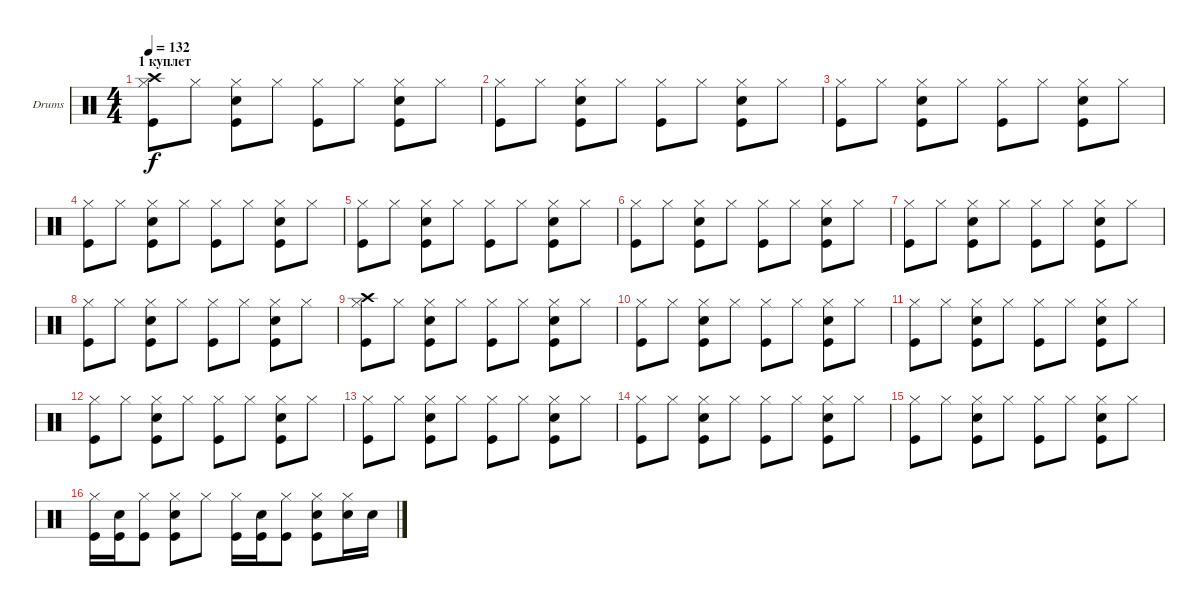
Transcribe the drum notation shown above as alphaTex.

\defaultSystemsLayout 4
\bracketExtendMode groupsimilarinstruments
\firstSystemTrackNameOrientation horizontal
\otherSystemsTrackNameOrientation horizontal
\track ("Drumkit" "Drums") {instrument percussion}
\staff {score}
\articulation defaults
\ts (4 4)
\section ("" "1 куплет")
\tempo 132
\clef neutral
\ks c
("Hi-Hat (closed)" "Kick (hit)" "Crash high (hit)").8{dy f} "Hi-Hat (closed)".8 ("Hi-Hat (closed)" "Kick (hit)" "Snare (hit) 2").8 "Hi-Hat (closed)".8 ("Hi-Hat (closed)" "Kick (hit)").8 "Hi-Hat (closed)".8 ("Hi-Hat (closed)" "Kick (hit)" "Snare (hit) 2").8 "Hi-Hat (closed)".8 |
("Hi-Hat (closed)" "Kick (hit)").8 "Hi-Hat (closed)".8 ("Hi-Hat (closed)" "Kick (hit)" "Snare (hit) 2").8 "Hi-Hat (closed)".8 ("Hi-Hat (closed)" "Kick (hit)").8 "Hi-Hat (closed)".8 ("Hi-Hat (closed)" "Kick (hit)" "Snare (hit) 2").8 "Hi-Hat (closed)".8 |
("Hi-Hat (closed)" "Kick (hit)").8 "Hi-Hat (closed)".8 ("Hi-Hat (closed)" "Kick (hit)" "Snare (hit) 2").8 "Hi-Hat (closed)".8 ("Hi-Hat (closed)" "Kick (hit)").8 "Hi-Hat (closed)".8 ("Hi-Hat (closed)" "Kick (hit)" "Snare (hit) 2").8 "Hi-Hat (closed)".8 |
("Hi-Hat (closed)" "Kick (hit)").8 "Hi-Hat (closed)".8 ("Hi-Hat (closed)" "Kick (hit)" "Snare (hit) 2").8 "Hi-Hat (closed)".8 ("Hi-Hat (closed)" "Kick (hit)").8 "Hi-Hat (closed)".8 ("Hi-Hat (closed)" "Kick (hit)" "Snare (hit) 2").8 "Hi-Hat (closed)".8 |
("Hi-Hat (closed)" "Kick (hit)").8 "Hi-Hat (closed)".8 ("Hi-Hat (closed)" "Kick (hit)" "Snare (hit) 2").8 "Hi-Hat (closed)".8 ("Hi-Hat (closed)" "Kick (hit)").8 "Hi-Hat (closed)".8 ("Hi-Hat (closed)" "Kick (hit)" "Snare (hit) 2").8 "Hi-Hat (closed)".8 |
("Hi-Hat (closed)" "Kick (hit)").8 "Hi-Hat (closed)".8 ("Hi-Hat (closed)" "Kick (hit)" "Snare (hit) 2").8 "Hi-Hat (closed)".8 ("Hi-Hat (closed)" "Kick (hit)").8 "Hi-Hat (closed)".8 ("Hi-Hat (closed)" "Kick (hit)" "Snare (hit) 2").8 "Hi-Hat (closed)".8 |
("Hi-Hat (closed)" "Kick (hit)").8 "Hi-Hat (closed)".8 ("Hi-Hat (closed)" "Kick (hit)" "Snare (hit) 2").8 "Hi-Hat (closed)".8 ("Hi-Hat (closed)" "Kick (hit)").8 "Hi-Hat (closed)".8 ("Hi-Hat (closed)" "Kick (hit)" "Snare (hit) 2").8 "Hi-Hat (closed)".8 |
("Hi-Hat (closed)" "Kick (hit)").8 "Hi-Hat (closed)".8 ("Hi-Hat (closed)" "Kick (hit)" "Snare (hit) 2").8 "Hi-Hat (closed)".8 ("Hi-Hat (closed)" "Kick (hit)").8 "Hi-Hat (closed)".8 ("Hi-Hat (closed)" "Kick (hit)" "Snare (hit) 2").8 "Hi-Hat (closed)".8 |
("Hi-Hat (closed)" "Kick (hit)" "Crash high (hit)").8 "Hi-Hat (closed)".8 ("Hi-Hat (closed)" "Kick (hit)" "Snare (hit) 2").8 "Hi-Hat (closed)".8 ("Hi-Hat (closed)" "Kick (hit)").8 "Hi-Hat (closed)".8 ("Hi-Hat (closed)" "Kick (hit)" "Snare (hit) 2").8 "Hi-Hat (closed)".8 |
("Hi-Hat (closed)" "Kick (hit)").8 "Hi-Hat (closed)".8 ("Hi-Hat (closed)" "Kick (hit)" "Snare (hit) 2").8 "Hi-Hat (closed)".8 ("Hi-Hat (closed)" "Kick (hit)").8 "Hi-Hat (closed)".8 ("Hi-Hat (closed)" "Kick (hit)" "Snare (hit) 2").8 "Hi-Hat (closed)".8 |
("Hi-Hat (closed)" "Kick (hit)").8 "Hi-Hat (closed)".8 ("Hi-Hat (closed)" "Kick (hit)" "Snare (hit) 2").8 "Hi-Hat (closed)".8 ("Hi-Hat (closed)" "Kick (hit)").8 "Hi-Hat (closed)".8 ("Hi-Hat (closed)" "Kick (hit)" "Snare (hit) 2").8 "Hi-Hat (closed)".8 |
("Hi-Hat (closed)" "Kick (hit)").8 "Hi-Hat (closed)".8 ("Hi-Hat (closed)" "Kick (hit)" "Snare (hit) 2").8 "Hi-Hat (closed)".8 ("Hi-Hat (closed)" "Kick (hit)").8 "Hi-Hat (closed)".8 ("Hi-Hat (closed)" "Kick (hit)" "Snare (hit) 2").8 "Hi-Hat (closed)".8 |
("Hi-Hat (closed)" "Kick (hit)").8 "Hi-Hat (closed)".8 ("Hi-Hat (closed)" "Kick (hit)" "Snare (hit) 2").8 "Hi-Hat (closed)".8 ("Hi-Hat (closed)" "Kick (hit)").8 "Hi-Hat (closed)".8 ("Hi-Hat (closed)" "Kick (hit)" "Snare (hit) 2").8 "Hi-Hat (closed)".8 |
("Hi-Hat (closed)" "Kick (hit)").8 "Hi-Hat (closed)".8 ("Hi-Hat (closed)" "Kick (hit)" "Snare (hit) 2").8 "Hi-Hat (closed)".8 ("Hi-Hat (closed)" "Kick (hit)").8 "Hi-Hat (closed)".8 ("Hi-Hat (closed)" "Kick (hit)" "Snare (hit) 2").8 "Hi-Hat (closed)".8 |
("Hi-Hat (closed)" "Kick (hit)").8 "Hi-Hat (closed)".8 ("Hi-Hat (closed)" "Kick (hit)" "Snare (hit) 2").8 "Hi-Hat (closed)".8 ("Hi-Hat (closed)" "Kick (hit)").8 "Hi-Hat (closed)".8 ("Hi-Hat (closed)" "Kick (hit)" "Snare (hit) 2").8 "Hi-Hat (closed)".8 |
("Kick (hit)" "Hi-Hat (closed)").16 ("Kick (hit)" "Snare (hit) 2").16 ("Kick (hit)" "Hi-Hat (closed)").8 ("Kick (hit)" "Hi-Hat (closed)" "Snare (hit) 2").8 "Hi-Hat (closed)".8 ("Kick (hit)" "Hi-Hat (closed)").16 ("Kick (hit)" "Snare (hit) 2").16 ("Kick (hit)" "Hi-Hat (closed)").8 ("Kick (hit)" "Hi-Hat (closed)" "Snare (hit) 2").8 ("Hi-Hat (closed)" "Snare (hit) 2").16 "Snare (hit) 2".16
